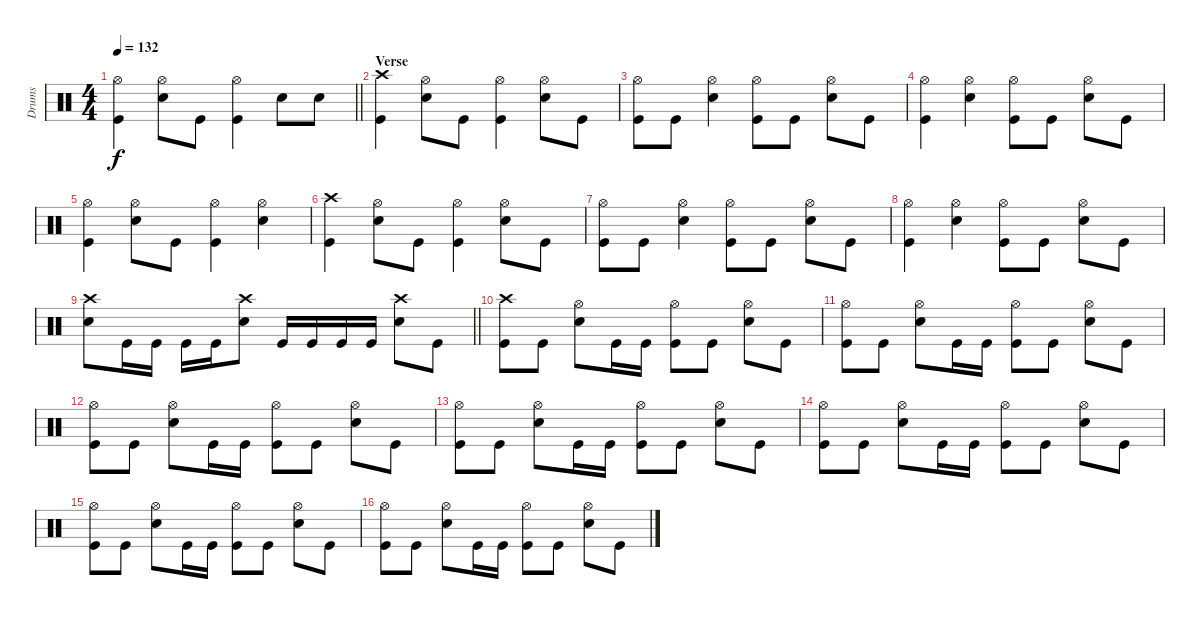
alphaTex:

\track ("Drums" "Drums") {instrument percussion}
\staff {score}
\articulation defaults
\ts (4 4)
\tempo 132
\clef neutral
\barLineRight lightlight
\ks c
("Hi-Hat (open)" "Kick (hit)").4{dy f} ("Hi-Hat (open)" "Electric Snare (hit)").8 "Kick (hit)".8 ("Hi-Hat (open)" "Kick (hit)").4 "Electric Snare (hit)".8 "Electric Snare (hit)".8 |
\section ("" "Verse ")
("Crash high (hit)" "Kick (hit)").4 ("Hi-Hat (open)" "Electric Snare (hit)").8 "Kick (hit)".8 ("Hi-Hat (open)" "Kick (hit)").4 ("Hi-Hat (open)" "Electric Snare (hit)").8 "Kick (hit)".8 |
("Hi-Hat (open)" "Kick (hit)").8 "Kick (hit)".8 ("Hi-Hat (open)" "Electric Snare (hit)").4 ("Hi-Hat (open)" "Kick (hit)").8 "Kick (hit)".8 ("Hi-Hat (open)" "Electric Snare (hit)").8 "Kick (hit)".8 |
("Hi-Hat (open)" "Kick (hit)").4 ("Hi-Hat (open)" "Electric Snare (hit)").4 ("Hi-Hat (open)" "Kick (hit)").8 "Kick (hit)".8 ("Hi-Hat (open)" "Electric Snare (hit)").8 "Kick (hit)".8 |
("Hi-Hat (open)" "Kick (hit)").4 ("Hi-Hat (open)" "Electric Snare (hit)").8 "Kick (hit)".8 ("Hi-Hat (open)" "Kick (hit)").4 ("Hi-Hat (open)" "Electric Snare (hit)").4 |
("Crash high (hit)" "Kick (hit)").4 ("Hi-Hat (open)" "Electric Snare (hit)").8 "Kick (hit)".8 ("Hi-Hat (open)" "Kick (hit)").4 ("Hi-Hat (open)" "Electric Snare (hit)").8 "Kick (hit)".8 |
("Hi-Hat (open)" "Kick (hit)").8 "Kick (hit)".8 ("Hi-Hat (open)" "Electric Snare (hit)").4 ("Hi-Hat (open)" "Kick (hit)").8 "Kick (hit)".8 ("Hi-Hat (open)" "Electric Snare (hit)").8 "Kick (hit)".8 |
("Hi-Hat (open)" "Kick (hit)").4 ("Hi-Hat (open)" "Electric Snare (hit)").4 ("Hi-Hat (open)" "Kick (hit)").8 "Kick (hit)".8 ("Hi-Hat (open)" "Electric Snare (hit)").8 "Kick (hit)".8 |
\barLineRight lightlight
("Crash high (hit)" "Electric Snare (hit)").8 "Kick (hit)".16 "Kick (hit)".16 "Kick (hit)".16 "Kick (hit)".16 ("Crash high (hit)" "Electric Snare (hit)").8 "Kick (hit)".16 "Kick (hit)".16 "Kick (hit)".16 "Kick (hit)".16 ("Crash high (hit)" "Electric Snare (hit)").8 "Kick (hit)".8 |
\section ("" "")
("Crash high (hit)" "Kick (hit)").8 "Kick (hit)".8 ("Hi-Hat (open)" "Electric Snare (hit)").8 "Kick (hit)".16 "Kick (hit)".16 ("Hi-Hat (open)" "Kick (hit)").8 "Kick (hit)".8 ("Hi-Hat (open)" "Electric Snare (hit)").8 "Kick (hit)".8 |
("Hi-Hat (open)" "Kick (hit)").8 "Kick (hit)".8 ("Hi-Hat (open)" "Electric Snare (hit)").8 "Kick (hit)".16 "Kick (hit)".16 ("Hi-Hat (open)" "Kick (hit)").8 "Kick (hit)".8 ("Hi-Hat (open)" "Electric Snare (hit)").8 "Kick (hit)".8 |
("Hi-Hat (open)" "Kick (hit)").8 "Kick (hit)".8 ("Hi-Hat (open)" "Electric Snare (hit)").8 "Kick (hit)".16 "Kick (hit)".16 ("Hi-Hat (open)" "Kick (hit)").8 "Kick (hit)".8 ("Hi-Hat (open)" "Electric Snare (hit)").8 "Kick (hit)".8 |
("Hi-Hat (open)" "Kick (hit)").8 "Kick (hit)".8 ("Hi-Hat (open)" "Electric Snare (hit)").8 "Kick (hit)".16 "Kick (hit)".16 ("Hi-Hat (open)" "Kick (hit)").8 "Kick (hit)".8 ("Hi-Hat (open)" "Electric Snare (hit)").8 "Kick (hit)".8 |
("Hi-Hat (open)" "Kick (hit)").8 "Kick (hit)".8 ("Hi-Hat (open)" "Electric Snare (hit)").8 "Kick (hit)".16 "Kick (hit)".16 ("Hi-Hat (open)" "Kick (hit)").8 "Kick (hit)".8 ("Hi-Hat (open)" "Electric Snare (hit)").8 "Kick (hit)".8 |
("Hi-Hat (open)" "Kick (hit)").8 "Kick (hit)".8 ("Hi-Hat (open)" "Electric Snare (hit)").8 "Kick (hit)".16 "Kick (hit)".16 ("Hi-Hat (open)" "Kick (hit)").8 "Kick (hit)".8 ("Hi-Hat (open)" "Electric Snare (hit)").8 "Kick (hit)".8 |
("Hi-Hat (open)" "Kick (hit)").8 "Kick (hit)".8 ("Hi-Hat (open)" "Electric Snare (hit)").8 "Kick (hit)".16 "Kick (hit)".16 ("Hi-Hat (open)" "Kick (hit)").8 "Kick (hit)".8 ("Hi-Hat (open)" "Electric Snare (hit)").8 "Kick (hit)".8
